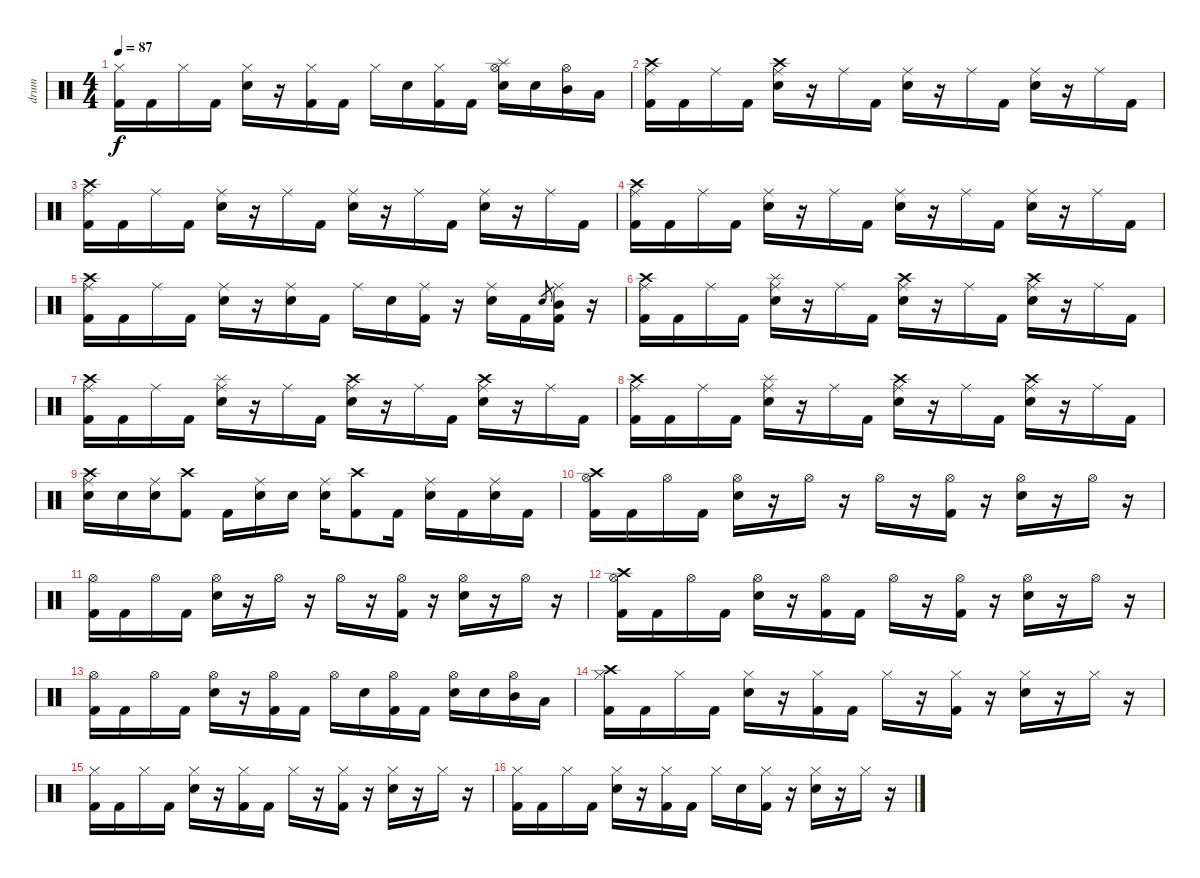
\track ("drum" "drum") {instrument percussion}
\staff {score}
\articulation defaults
\ts (4 4)
\tempo 87
\clef neutral
\ks c
("Hi-Hat (closed)" "Kick (hit) 2").16{dy f} "Kick (hit) 2".16 "Hi-Hat (closed)".16 "Kick (hit) 2".16 ("Hi-Hat (closed)" "Electric Snare (hit)").16 r.16 ("Hi-Hat (closed)" "Kick (hit) 2").16 "Kick (hit) 2".16 "Hi-Hat (closed)".16 "Electric Snare (hit)".16 ("Hi-Hat (closed)" "Kick (hit) 2").16 "Kick (hit) 2".16 ("Splash (hit)" "Hi-Hat (open)" "Electric Snare (hit)").16 "Electric Snare (hit)".16 ("Hi-Hat (open)" "Mid Tom (hit)").16 "Low Tom (hit)".16 |
("Crash high (hit)" "Ride (middle)" "Kick (hit) 2").16 "Kick (hit) 2".16 "Ride (middle)".16 "Kick (hit) 2".16 ("Crash high (hit)" "Ride (middle)" "Electric Snare (hit)").16 r.16 "Ride (middle)".16 "Kick (hit) 2".16 ("Ride (middle)" "Electric Snare (hit)").16 r.16 "Ride (middle)".16 "Kick (hit) 2".16 ("Ride (middle)" "Electric Snare (hit)").16 r.16 "Ride (middle)".16 "Kick (hit) 2".16 |
("Crash high (hit)" "Ride (middle)" "Kick (hit) 2").16 "Kick (hit) 2".16 "Ride (middle)".16 "Kick (hit) 2".16 ("Ride (middle)" "Electric Snare (hit)").16 r.16 "Ride (middle)".16 "Kick (hit) 2".16 ("Ride (middle)" "Electric Snare (hit)").16 r.16 "Ride (middle)".16 "Kick (hit) 2".16 ("Ride (middle)" "Electric Snare (hit)").16 r.16 "Ride (middle)".16 "Kick (hit) 2".16 |
("Crash high (hit)" "Ride (middle)" "Kick (hit) 2").16 "Kick (hit) 2".16 "Ride (middle)".16 "Kick (hit) 2".16 ("Ride (middle)" "Electric Snare (hit)").16 r.16 "Ride (middle)".16 "Kick (hit) 2".16 ("Ride (middle)" "Electric Snare (hit)").16 r.16 "Ride (middle)".16 "Kick (hit) 2".16 ("Ride (middle)" "Electric Snare (hit)").16 r.16 "Ride (middle)".16 "Kick (hit) 2".16 |
("Crash high (hit)" "Ride (middle)" "Kick (hit) 2").16 "Kick (hit) 2".16 "Ride (middle)".16 "Kick (hit) 2".16 ("Ride (middle)" "Electric Snare (hit)").16 r.16 ("Ride (middle)" "Electric Snare (hit)").16 "Kick (hit) 2".16 "Ride (middle)".16 "Electric Snare (hit)".16 ("Ride (middle)" "Kick (hit) 2").16 r.16 ("Ride (middle)" "Electric Snare (hit)").16 "Kick (hit) 2".16 "Electric Snare (hit)".8{gr} ("Ride (middle)" "Mid Tom (hit)" "Kick (hit) 2").16 r.16 |
("Crash high (hit)" "Ride (middle)" "Kick (hit) 2").16 "Kick (hit) 2".16 "Ride (middle)".16 "Kick (hit) 2".16 ("Splash (hit)" "Ride (middle)" "Electric Snare (hit)").16 r.16 "Ride (middle)".16 "Kick (hit) 2".16 ("Crash high (hit)" "Ride (middle)" "Electric Snare (hit)").16 r.16 "Ride (middle)".16 "Kick (hit) 2".16 ("Crash high (hit)" "Ride (middle)" "Electric Snare (hit)").16 r.16 "Ride (middle)".16 "Kick (hit) 2".16 |
("Crash high (hit)" "Ride (middle)" "Kick (hit) 2").16 "Kick (hit) 2".16 "Ride (middle)".16 "Kick (hit) 2".16 ("Splash (hit)" "Ride (middle)" "Electric Snare (hit)").16 r.16 "Ride (middle)".16 "Kick (hit) 2".16 ("Crash high (hit)" "Ride (middle)" "Electric Snare (hit)").16 r.16 "Ride (middle)".16 "Kick (hit) 2".16 ("Crash high (hit)" "Ride (middle)" "Electric Snare (hit)").16 r.16 "Ride (middle)".16 "Kick (hit) 2".16 |
("Crash high (hit)" "Ride (middle)" "Kick (hit) 2").16 "Kick (hit) 2".16 "Ride (middle)".16 "Kick (hit) 2".16 ("Splash (hit)" "Ride (middle)" "Electric Snare (hit)").16 r.16 "Ride (middle)".16 "Kick (hit) 2".16 ("Crash high (hit)" "Ride (middle)" "Electric Snare (hit)").16 r.16 "Ride (middle)".16 "Kick (hit) 2".16 ("Crash high (hit)" "Ride (middle)" "Electric Snare (hit)").16 r.16 "Ride (middle)".16 "Kick (hit) 2".16 |
("Crash high (hit)" "Ride (middle)" "Electric Snare (hit)").16 "Electric Snare (hit)".16 ("Ride (middle)" "Electric Snare (hit)").16 ("Crash high (hit)" "Kick (hit) 2").8 "Kick (hit) 2".16 ("Ride (middle)" "Electric Snare (hit)").16 "Electric Snare (hit)".16 ("Ride (middle)" "Electric Snare (hit)").16 ("Crash high (hit)" "Kick (hit) 2").8 "Kick (hit) 2".16 ("Ride (middle)" "Electric Snare (hit)").16 "Kick (hit) 2".16 ("Ride (middle)" "Electric Snare (hit)").16 "Kick (hit) 2".16 |
("Crash high (hit)" "Hi-Hat (open)" "Kick (hit) 2").16 "Kick (hit) 2".16 "Hi-Hat (open)".16 "Kick (hit) 2".16 ("Hi-Hat (open)" "Electric Snare (hit)").16 r.16 "Hi-Hat (open)".16 r.16 "Hi-Hat (open)".16 r.16 ("Hi-Hat (open)" "Kick (hit) 2").16 r.16 ("Hi-Hat (open)" "Electric Snare (hit)").16 r.16 "Hi-Hat (open)".16 r.16 |
("Hi-Hat (open)" "Kick (hit) 2").16 "Kick (hit) 2".16 "Hi-Hat (open)".16 "Kick (hit) 2".16 ("Hi-Hat (open)" "Electric Snare (hit)").16 r.16 "Hi-Hat (open)".16 r.16 "Hi-Hat (open)".16 r.16 ("Hi-Hat (open)" "Kick (hit) 2").16 r.16 ("Hi-Hat (open)" "Electric Snare (hit)").16 r.16 "Hi-Hat (open)".16 r.16 |
("Crash high (hit)" "Hi-Hat (open)" "Kick (hit) 2").16 "Kick (hit) 2".16 "Hi-Hat (open)".16 "Kick (hit) 2".16 ("Hi-Hat (open)" "Electric Snare (hit)").16 r.16 ("Hi-Hat (open)" "Kick (hit) 2").16 "Kick (hit) 2".16 "Hi-Hat (open)".16 r.16 ("Hi-Hat (open)" "Kick (hit) 2").16 r.16 ("Hi-Hat (open)" "Electric Snare (hit)").16 r.16 "Hi-Hat (open)".16 r.16 |
("Hi-Hat (open)" "Kick (hit) 2").16 "Kick (hit) 2".16 "Hi-Hat (open)".16 "Kick (hit) 2".16 ("Hi-Hat (open)" "Electric Snare (hit)").16 r.16 ("Hi-Hat (open)" "Kick (hit) 2").16 "Kick (hit) 2".16 "Hi-Hat (open)".16 "Electric Snare (hit)".16 ("Hi-Hat (open)" "Kick (hit) 2").16 "Kick (hit) 2".16 ("Hi-Hat (open)" "Electric Snare (hit)").16 "Electric Snare (hit)".16 ("Hi-Hat (open)" "Mid Tom (hit)").16 "Low Tom (hit)".16 |
("Crash high (hit)" "Hi-Hat (closed)" "Kick (hit) 2").16 "Kick (hit) 2".16 "Hi-Hat (closed)".16 "Kick (hit) 2".16 ("Hi-Hat (closed)" "Electric Snare (hit)").16 r.16 ("Hi-Hat (closed)" "Kick (hit) 2").16 "Kick (hit) 2".16 "Hi-Hat (closed)".16 r.16 ("Hi-Hat (closed)" "Kick (hit) 2").16 r.16 ("Hi-Hat (closed)" "Electric Snare (hit)").16 r.16 "Hi-Hat (closed)".16 r.16 |
("Hi-Hat (closed)" "Kick (hit) 2").16 "Kick (hit) 2".16 "Hi-Hat (closed)".16 "Kick (hit) 2".16 ("Hi-Hat (closed)" "Electric Snare (hit)").16 r.16 ("Hi-Hat (closed)" "Kick (hit) 2").16 "Kick (hit) 2".16 "Hi-Hat (closed)".16 r.16 ("Hi-Hat (closed)" "Kick (hit) 2").16 r.16 ("Hi-Hat (closed)" "Electric Snare (hit)").16 r.16 "Hi-Hat (closed)".16 r.16 |
("Hi-Hat (closed)" "Kick (hit) 2").16 "Kick (hit) 2".16 "Hi-Hat (closed)".16 "Kick (hit) 2".16 ("Hi-Hat (closed)" "Electric Snare (hit)").16 r.16 ("Hi-Hat (closed)" "Kick (hit) 2").16 "Kick (hit) 2".16 "Hi-Hat (closed)".16 "Electric Snare (hit)".16 ("Hi-Hat (closed)" "Kick (hit) 2").16 r.16 ("Hi-Hat (closed)" "Electric Snare (hit)").16 r.16 "Hi-Hat (closed)".16 r.16
